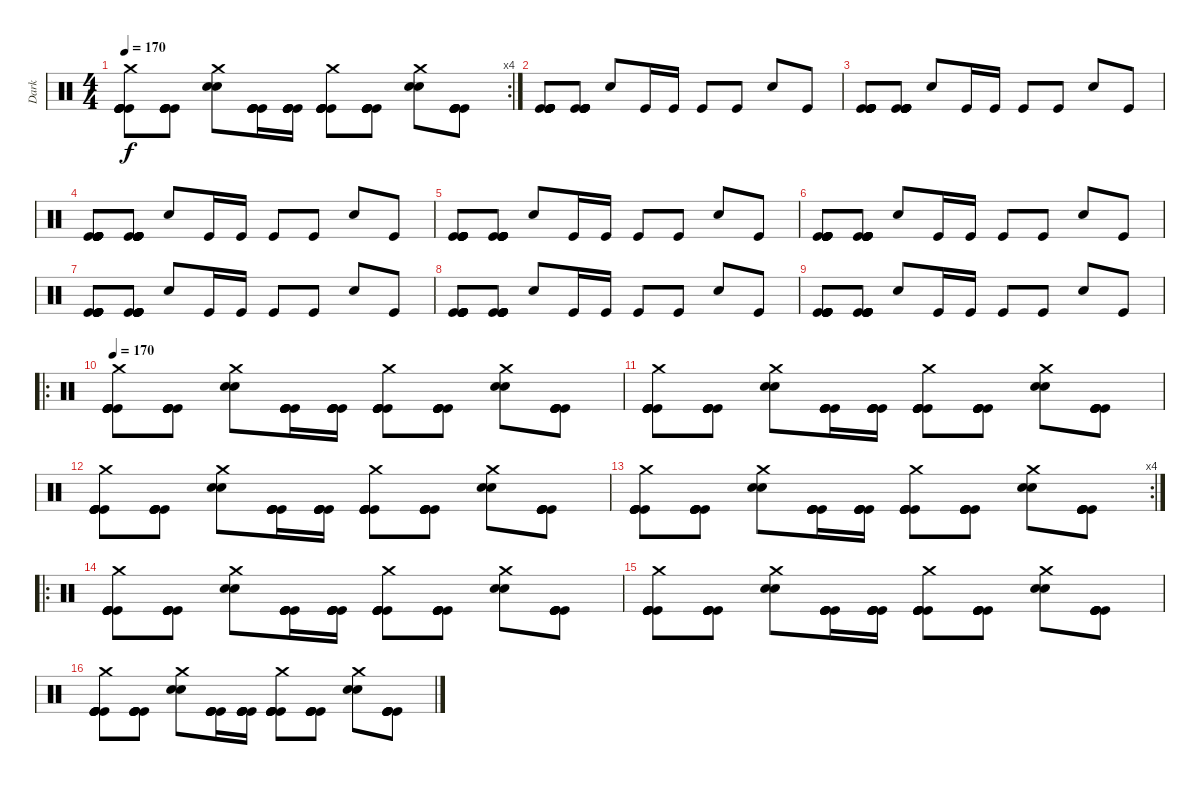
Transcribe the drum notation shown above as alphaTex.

\track ("Dark" "Dark") {instrument percussion}
\staff {score}
\articulation defaults
\rc 4
\ts (4 4)
\tempo 170
\clef neutral
\ks c
("Kick (hit)" "Kick (hit)" "Kick (hit)" "Kick (hit)" "Crash medium (hit)" "Kick (hit)").8{dy f} ("Kick (hit)" "Kick (hit)" "Kick (hit)" "Kick (hit)" "Kick (hit)").8 ("Snare (hit) 2" "Crash medium (hit)" "Snare (hit) 2").8 ("Kick (hit)" "Kick (hit)" "Kick (hit)" "Kick (hit)" "Kick (hit)").16 ("Kick (hit)" "Kick (hit)" "Kick (hit)" "Kick (hit)" "Kick (hit)").16 ("Kick (hit)" "Kick (hit)" "Kick (hit)" "Kick (hit)" "Crash medium (hit)" "Kick (hit)").8 ("Kick (hit)" "Kick (hit)" "Kick (hit)" "Kick (hit)" "Kick (hit)").8 ("Snare (hit) 2" "Crash medium (hit)" "Snare (hit) 2").8 ("Kick (hit)" "Kick (hit)" "Kick (hit)" "Kick (hit)" "Kick (hit)").8 |
("Kick (hit)" "Kick (hit)" "Kick (hit)" "Kick (hit)" "Kick (hit)" "Kick (hit)").8 ("Kick (hit)" "Kick (hit)" "Kick (hit)" "Kick (hit)" "Kick (hit)" "Kick (hit)").8 "Snare (hit) 2".8 "Kick (hit)".16 "Kick (hit)".16 "Kick (hit)".8 "Kick (hit)".8 "Snare (hit) 2".8 "Kick (hit)".8 |
("Kick (hit)" "Kick (hit)" "Kick (hit)" "Kick (hit)" "Kick (hit)" "Kick (hit)").8 ("Kick (hit)" "Kick (hit)" "Kick (hit)" "Kick (hit)" "Kick (hit)" "Kick (hit)").8 "Snare (hit) 2".8 "Kick (hit)".16 "Kick (hit)".16 "Kick (hit)".8 "Kick (hit)".8 "Snare (hit) 2".8 "Kick (hit)".8 |
("Kick (hit)" "Kick (hit)" "Kick (hit)" "Kick (hit)" "Kick (hit)" "Kick (hit)").8 ("Kick (hit)" "Kick (hit)" "Kick (hit)" "Kick (hit)" "Kick (hit)" "Kick (hit)").8 "Snare (hit) 2".8 "Kick (hit)".16 "Kick (hit)".16 "Kick (hit)".8 "Kick (hit)".8 "Snare (hit) 2".8 "Kick (hit)".8 |
("Kick (hit)" "Kick (hit)" "Kick (hit)" "Kick (hit)" "Kick (hit)" "Kick (hit)").8 ("Kick (hit)" "Kick (hit)" "Kick (hit)" "Kick (hit)" "Kick (hit)" "Kick (hit)").8 "Snare (hit) 2".8 "Kick (hit)".16 "Kick (hit)".16 "Kick (hit)".8 "Kick (hit)".8 "Snare (hit) 2".8 "Kick (hit)".8 |
("Kick (hit)" "Kick (hit)" "Kick (hit)" "Kick (hit)" "Kick (hit)" "Kick (hit)").8 ("Kick (hit)" "Kick (hit)" "Kick (hit)" "Kick (hit)" "Kick (hit)" "Kick (hit)").8 "Snare (hit) 2".8 "Kick (hit)".16 "Kick (hit)".16 "Kick (hit)".8 "Kick (hit)".8 "Snare (hit) 2".8 "Kick (hit)".8 |
("Kick (hit)" "Kick (hit)" "Kick (hit)" "Kick (hit)" "Kick (hit)" "Kick (hit)").8 ("Kick (hit)" "Kick (hit)" "Kick (hit)" "Kick (hit)" "Kick (hit)" "Kick (hit)").8 "Snare (hit) 2".8 "Kick (hit)".16 "Kick (hit)".16 "Kick (hit)".8 "Kick (hit)".8 "Snare (hit) 2".8 "Kick (hit)".8 |
("Kick (hit)" "Kick (hit)" "Kick (hit)" "Kick (hit)" "Kick (hit)" "Kick (hit)").8 ("Kick (hit)" "Kick (hit)" "Kick (hit)" "Kick (hit)" "Kick (hit)" "Kick (hit)").8 "Snare (hit) 2".8 "Kick (hit)".16 "Kick (hit)".16 "Kick (hit)".8 "Kick (hit)".8 "Snare (hit) 2".8 "Kick (hit)".8 |
("Kick (hit)" "Kick (hit)" "Kick (hit)" "Kick (hit)" "Kick (hit)" "Kick (hit)").8 ("Kick (hit)" "Kick (hit)" "Kick (hit)" "Kick (hit)" "Kick (hit)" "Kick (hit)").8 "Snare (hit) 2".8 "Kick (hit)".16 "Kick (hit)".16 "Kick (hit)".8 "Kick (hit)".8 "Snare (hit) 2".8 "Kick (hit)".8 |
\ro
\tempo 170
("Kick (hit)" "Kick (hit)" "Kick (hit)" "Kick (hit)" "Crash medium (hit)" "Kick (hit)").8 ("Kick (hit)" "Kick (hit)" "Kick (hit)" "Kick (hit)" "Kick (hit)").8 ("Snare (hit) 2" "Crash medium (hit)" "Snare (hit) 2").8 ("Kick (hit)" "Kick (hit)" "Kick (hit)" "Kick (hit)" "Kick (hit)").16 ("Kick (hit)" "Kick (hit)" "Kick (hit)" "Kick (hit)" "Kick (hit)").16 ("Kick (hit)" "Kick (hit)" "Kick (hit)" "Kick (hit)" "Crash medium (hit)" "Kick (hit)").8 ("Kick (hit)" "Kick (hit)" "Kick (hit)" "Kick (hit)" "Kick (hit)").8 ("Snare (hit) 2" "Crash medium (hit)" "Snare (hit) 2").8 ("Kick (hit)" "Kick (hit)" "Kick (hit)" "Kick (hit)" "Kick (hit)").8 |
("Kick (hit)" "Kick (hit)" "Kick (hit)" "Kick (hit)" "Crash medium (hit)" "Kick (hit)").8 ("Kick (hit)" "Kick (hit)" "Kick (hit)" "Kick (hit)" "Kick (hit)").8 ("Snare (hit) 2" "Crash medium (hit)" "Snare (hit) 2").8 ("Kick (hit)" "Kick (hit)" "Kick (hit)" "Kick (hit)" "Kick (hit)").16 ("Kick (hit)" "Kick (hit)" "Kick (hit)" "Kick (hit)" "Kick (hit)").16 ("Kick (hit)" "Kick (hit)" "Kick (hit)" "Kick (hit)" "Crash medium (hit)" "Kick (hit)").8 ("Kick (hit)" "Kick (hit)" "Kick (hit)" "Kick (hit)" "Kick (hit)").8 ("Snare (hit) 2" "Crash medium (hit)" "Snare (hit) 2").8 ("Kick (hit)" "Kick (hit)" "Kick (hit)" "Kick (hit)" "Kick (hit)").8 |
("Kick (hit)" "Kick (hit)" "Kick (hit)" "Kick (hit)" "Crash medium (hit)" "Kick (hit)").8 ("Kick (hit)" "Kick (hit)" "Kick (hit)" "Kick (hit)" "Kick (hit)").8 ("Snare (hit) 2" "Crash medium (hit)" "Snare (hit) 2").8 ("Kick (hit)" "Kick (hit)" "Kick (hit)" "Kick (hit)" "Kick (hit)").16 ("Kick (hit)" "Kick (hit)" "Kick (hit)" "Kick (hit)" "Kick (hit)").16 ("Kick (hit)" "Kick (hit)" "Kick (hit)" "Kick (hit)" "Crash medium (hit)" "Kick (hit)").8 ("Kick (hit)" "Kick (hit)" "Kick (hit)" "Kick (hit)" "Kick (hit)").8 ("Snare (hit) 2" "Crash medium (hit)" "Snare (hit) 2").8 ("Kick (hit)" "Kick (hit)" "Kick (hit)" "Kick (hit)" "Kick (hit)").8 |
\rc 4
("Kick (hit)" "Kick (hit)" "Kick (hit)" "Kick (hit)" "Crash medium (hit)" "Kick (hit)").8 ("Kick (hit)" "Kick (hit)" "Kick (hit)" "Kick (hit)" "Kick (hit)").8 ("Snare (hit) 2" "Crash medium (hit)" "Snare (hit) 2").8 ("Kick (hit)" "Kick (hit)" "Kick (hit)" "Kick (hit)" "Kick (hit)").16 ("Kick (hit)" "Kick (hit)" "Kick (hit)" "Kick (hit)" "Kick (hit)").16 ("Kick (hit)" "Kick (hit)" "Kick (hit)" "Kick (hit)" "Crash medium (hit)" "Kick (hit)").8 ("Kick (hit)" "Kick (hit)" "Kick (hit)" "Kick (hit)" "Kick (hit)").8 ("Snare (hit) 2" "Crash medium (hit)" "Snare (hit) 2").8 ("Kick (hit)" "Kick (hit)" "Kick (hit)" "Kick (hit)" "Kick (hit)").8 |
\ro
("Kick (hit)" "Kick (hit)" "Kick (hit)" "Kick (hit)" "Crash medium (hit)" "Kick (hit)").8 ("Kick (hit)" "Kick (hit)" "Kick (hit)" "Kick (hit)" "Kick (hit)").8 ("Snare (hit) 2" "Crash medium (hit)" "Snare (hit) 2").8 ("Kick (hit)" "Kick (hit)" "Kick (hit)" "Kick (hit)" "Kick (hit)").16 ("Kick (hit)" "Kick (hit)" "Kick (hit)" "Kick (hit)" "Kick (hit)").16 ("Kick (hit)" "Kick (hit)" "Kick (hit)" "Kick (hit)" "Crash medium (hit)" "Kick (hit)").8 ("Kick (hit)" "Kick (hit)" "Kick (hit)" "Kick (hit)" "Kick (hit)").8 ("Snare (hit) 2" "Crash medium (hit)" "Snare (hit) 2").8 ("Kick (hit)" "Kick (hit)" "Kick (hit)" "Kick (hit)" "Kick (hit)").8 |
("Kick (hit)" "Kick (hit)" "Kick (hit)" "Kick (hit)" "Crash medium (hit)" "Kick (hit)").8 ("Kick (hit)" "Kick (hit)" "Kick (hit)" "Kick (hit)" "Kick (hit)").8 ("Snare (hit) 2" "Crash medium (hit)" "Snare (hit) 2").8 ("Kick (hit)" "Kick (hit)" "Kick (hit)" "Kick (hit)" "Kick (hit)").16 ("Kick (hit)" "Kick (hit)" "Kick (hit)" "Kick (hit)" "Kick (hit)").16 ("Kick (hit)" "Kick (hit)" "Kick (hit)" "Kick (hit)" "Crash medium (hit)" "Kick (hit)").8 ("Kick (hit)" "Kick (hit)" "Kick (hit)" "Kick (hit)" "Kick (hit)").8 ("Snare (hit) 2" "Crash medium (hit)" "Snare (hit) 2").8 ("Kick (hit)" "Kick (hit)" "Kick (hit)" "Kick (hit)" "Kick (hit)").8 |
("Kick (hit)" "Kick (hit)" "Kick (hit)" "Kick (hit)" "Crash medium (hit)" "Kick (hit)").8 ("Kick (hit)" "Kick (hit)" "Kick (hit)" "Kick (hit)" "Kick (hit)").8 ("Snare (hit) 2" "Crash medium (hit)" "Snare (hit) 2").8 ("Kick (hit)" "Kick (hit)" "Kick (hit)" "Kick (hit)" "Kick (hit)").16 ("Kick (hit)" "Kick (hit)" "Kick (hit)" "Kick (hit)" "Kick (hit)").16 ("Kick (hit)" "Kick (hit)" "Kick (hit)" "Kick (hit)" "Crash medium (hit)" "Kick (hit)").8 ("Kick (hit)" "Kick (hit)" "Kick (hit)" "Kick (hit)" "Kick (hit)").8 ("Snare (hit) 2" "Crash medium (hit)" "Snare (hit) 2").8 ("Kick (hit)" "Kick (hit)" "Kick (hit)" "Kick (hit)" "Kick (hit)").8
